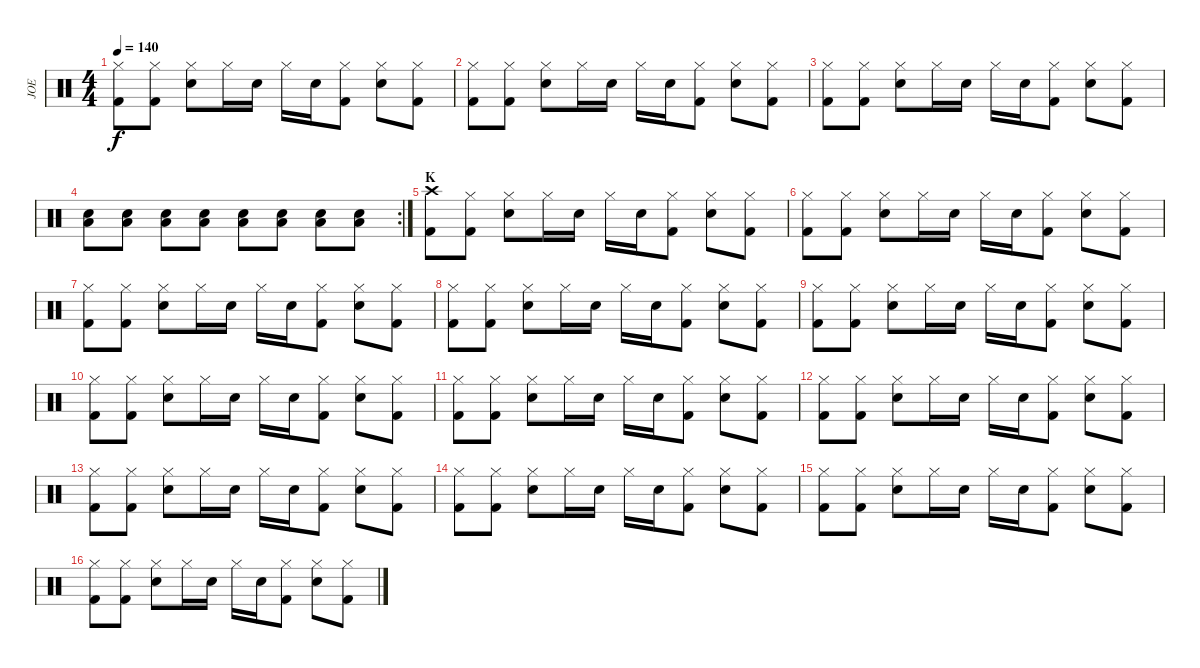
\track ("JOE" "JOE") {instrument percussion}
\staff {score}
\articulation defaults
\ts (4 4)
\tempo 140
\clef neutral
\ks c
("Hi-Hat (closed)" "Kick (hit) 2").8{dy f} ("Hi-Hat (closed)" "Kick (hit) 2").8 ("Hi-Hat (closed)" "Snare (hit) 2").8 "Hi-Hat (closed)".16 "Snare (hit) 2".16 "Hi-Hat (closed)".16 "Snare (hit) 2".16 ("Hi-Hat (closed)" "Kick (hit) 2").8 ("Hi-Hat (closed)" "Snare (hit) 2").8 ("Hi-Hat (closed)" "Kick (hit) 2").8 |
("Hi-Hat (closed)" "Kick (hit) 2").8 ("Hi-Hat (closed)" "Kick (hit) 2").8 ("Hi-Hat (closed)" "Snare (hit) 2").8 "Hi-Hat (closed)".16 "Snare (hit) 2".16 "Hi-Hat (closed)".16 "Snare (hit) 2".16 ("Hi-Hat (closed)" "Kick (hit) 2").8 ("Hi-Hat (closed)" "Snare (hit) 2").8 ("Hi-Hat (closed)" "Kick (hit) 2").8 |
("Hi-Hat (closed)" "Kick (hit) 2").8 ("Hi-Hat (closed)" "Kick (hit) 2").8 ("Hi-Hat (closed)" "Snare (hit) 2").8 "Hi-Hat (closed)".16 "Snare (hit) 2".16 "Hi-Hat (closed)".16 "Snare (hit) 2".16 ("Hi-Hat (closed)" "Kick (hit) 2").8 ("Hi-Hat (closed)" "Snare (hit) 2").8 ("Hi-Hat (closed)" "Kick (hit) 2").8 |
\rc 2
("Snare (hit) 2" "Low Floor Tom (hit)").8 ("Snare (hit) 2" "Low Floor Tom (hit)").8 ("Snare (hit) 2" "Low Floor Tom (hit)").8 ("Snare (hit) 2" "Low Floor Tom (hit)").8 ("Snare (hit) 2" "Low Floor Tom (hit)").8 ("Snare (hit) 2" "Low Floor Tom (hit)").8 ("Snare (hit) 2" "Low Floor Tom (hit)").8 ("Snare (hit) 2" "Low Floor Tom (hit)").8 |
\section ("" "K")
("Crash high (hit)" "Kick (hit) 2").8 ("Hi-Hat (closed)" "Kick (hit) 2").8 ("Hi-Hat (closed)" "Snare (hit) 2").8 "Hi-Hat (closed)".16 "Snare (hit) 2".16 "Hi-Hat (closed)".16 "Snare (hit) 2".16 ("Hi-Hat (closed)" "Kick (hit) 2").8 ("Hi-Hat (closed)" "Snare (hit) 2").8 ("Hi-Hat (closed)" "Kick (hit) 2").8 |
("Hi-Hat (closed)" "Kick (hit) 2").8 ("Hi-Hat (closed)" "Kick (hit) 2").8 ("Hi-Hat (closed)" "Snare (hit) 2").8 "Hi-Hat (closed)".16 "Snare (hit) 2".16 "Hi-Hat (closed)".16 "Snare (hit) 2".16 ("Hi-Hat (closed)" "Kick (hit) 2").8 ("Hi-Hat (closed)" "Snare (hit) 2").8 ("Hi-Hat (closed)" "Kick (hit) 2").8 |
("Hi-Hat (closed)" "Kick (hit) 2").8 ("Hi-Hat (closed)" "Kick (hit) 2").8 ("Hi-Hat (closed)" "Snare (hit) 2").8 "Hi-Hat (closed)".16 "Snare (hit) 2".16 "Hi-Hat (closed)".16 "Snare (hit) 2".16 ("Hi-Hat (closed)" "Kick (hit) 2").8 ("Hi-Hat (closed)" "Snare (hit) 2").8 ("Hi-Hat (closed)" "Kick (hit) 2").8 |
("Hi-Hat (closed)" "Kick (hit) 2").8 ("Hi-Hat (closed)" "Kick (hit) 2").8 ("Hi-Hat (closed)" "Snare (hit) 2").8 "Hi-Hat (closed)".16 "Snare (hit) 2".16 "Hi-Hat (closed)".16 "Snare (hit) 2".16 ("Hi-Hat (closed)" "Kick (hit) 2").8 ("Hi-Hat (closed)" "Snare (hit) 2").8 ("Hi-Hat (closed)" "Kick (hit) 2").8 |
("Hi-Hat (closed)" "Kick (hit) 2").8 ("Hi-Hat (closed)" "Kick (hit) 2").8 ("Hi-Hat (closed)" "Snare (hit) 2").8 "Hi-Hat (closed)".16 "Snare (hit) 2".16 "Hi-Hat (closed)".16 "Snare (hit) 2".16 ("Hi-Hat (closed)" "Kick (hit) 2").8 ("Hi-Hat (closed)" "Snare (hit) 2").8 ("Hi-Hat (closed)" "Kick (hit) 2").8 |
("Hi-Hat (closed)" "Kick (hit) 2").8 ("Hi-Hat (closed)" "Kick (hit) 2").8 ("Hi-Hat (closed)" "Snare (hit) 2").8 "Hi-Hat (closed)".16 "Snare (hit) 2".16 "Hi-Hat (closed)".16 "Snare (hit) 2".16 ("Hi-Hat (closed)" "Kick (hit) 2").8 ("Hi-Hat (closed)" "Snare (hit) 2").8 ("Hi-Hat (closed)" "Kick (hit) 2").8 |
("Hi-Hat (closed)" "Kick (hit) 2").8 ("Hi-Hat (closed)" "Kick (hit) 2").8 ("Hi-Hat (closed)" "Snare (hit) 2").8 "Hi-Hat (closed)".16 "Snare (hit) 2".16 "Hi-Hat (closed)".16 "Snare (hit) 2".16 ("Hi-Hat (closed)" "Kick (hit) 2").8 ("Hi-Hat (closed)" "Snare (hit) 2").8 ("Hi-Hat (closed)" "Kick (hit) 2").8 |
("Hi-Hat (closed)" "Kick (hit) 2").8 ("Hi-Hat (closed)" "Kick (hit) 2").8 ("Hi-Hat (closed)" "Snare (hit) 2").8 "Hi-Hat (closed)".16 "Snare (hit) 2".16 "Hi-Hat (closed)".16 "Snare (hit) 2".16 ("Hi-Hat (closed)" "Kick (hit) 2").8 ("Hi-Hat (closed)" "Snare (hit) 2").8 ("Hi-Hat (closed)" "Kick (hit) 2").8 |
("Hi-Hat (closed)" "Kick (hit) 2").8 ("Hi-Hat (closed)" "Kick (hit) 2").8 ("Hi-Hat (closed)" "Snare (hit) 2").8 "Hi-Hat (closed)".16 "Snare (hit) 2".16 "Hi-Hat (closed)".16 "Snare (hit) 2".16 ("Hi-Hat (closed)" "Kick (hit) 2").8 ("Hi-Hat (closed)" "Snare (hit) 2").8 ("Hi-Hat (closed)" "Kick (hit) 2").8 |
("Hi-Hat (closed)" "Kick (hit) 2").8 ("Hi-Hat (closed)" "Kick (hit) 2").8 ("Hi-Hat (closed)" "Snare (hit) 2").8 "Hi-Hat (closed)".16 "Snare (hit) 2".16 "Hi-Hat (closed)".16 "Snare (hit) 2".16 ("Hi-Hat (closed)" "Kick (hit) 2").8 ("Hi-Hat (closed)" "Snare (hit) 2").8 ("Hi-Hat (closed)" "Kick (hit) 2").8 |
("Hi-Hat (closed)" "Kick (hit) 2").8 ("Hi-Hat (closed)" "Kick (hit) 2").8 ("Hi-Hat (closed)" "Snare (hit) 2").8 "Hi-Hat (closed)".16 "Snare (hit) 2".16 "Hi-Hat (closed)".16 "Snare (hit) 2".16 ("Hi-Hat (closed)" "Kick (hit) 2").8 ("Hi-Hat (closed)" "Snare (hit) 2").8 ("Hi-Hat (closed)" "Kick (hit) 2").8 |
("Hi-Hat (closed)" "Kick (hit) 2").8 ("Hi-Hat (closed)" "Kick (hit) 2").8 ("Hi-Hat (closed)" "Snare (hit) 2").8 "Hi-Hat (closed)".16 "Snare (hit) 2".16 "Hi-Hat (closed)".16 "Snare (hit) 2".16 ("Hi-Hat (closed)" "Kick (hit) 2").8 ("Hi-Hat (closed)" "Snare (hit) 2").8 ("Hi-Hat (closed)" "Kick (hit) 2").8
